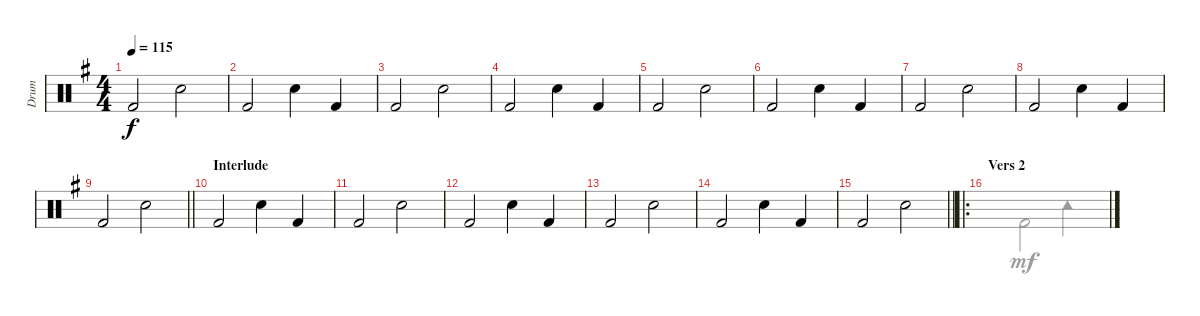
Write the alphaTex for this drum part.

\track ("Drum" "Drum") {instrument percussion}
\staff {score}
\articulation defaults
\voice
\ts (4 4)
\tempo 115
\clef neutral
\ks eminor "Kick (hit) 2".2{dy f} "Snare (hit) 2".2
|
"Kick (hit) 2".2 "Snare (hit) 2".4 "Kick (hit) 2".4 |
"Kick (hit) 2".2 "Snare (hit) 2".2 |
"Kick (hit) 2".2 "Snare (hit) 2".4 "Kick (hit) 2".4 |
"Kick (hit) 2".2 "Snare (hit) 2".2 |
"Kick (hit) 2".2 "Snare (hit) 2".4 "Kick (hit) 2".4 |
"Kick (hit) 2".2 "Snare (hit) 2".2 |
"Kick (hit) 2".2 "Snare (hit) 2".4 "Kick (hit) 2".4 |
\barLineRight lightlight "Kick (hit) 2".2 "Snare (hit) 2".2
|
\section ("" "Interlude")
"Kick (hit) 2".2 "Snare (hit) 2".4 "Kick (hit) 2".4 |
"Kick (hit) 2".2 "Snare (hit) 2".2 |
"Kick (hit) 2".2 "Snare (hit) 2".4 "Kick (hit) 2".4 |
"Kick (hit) 2".2 "Snare (hit) 2".2 |
"Kick (hit) 2".2 "Snare (hit) 2".4 "Kick (hit) 2".4 |
\barLineRight lightlight "Kick (hit) 2".2 "Snare (hit) 2".2
|
\ro
\section ("" "Vers 2")
\voice
\clef neutral
\ottava regular
\simile none
\ks eminor
|
|
|
|
|
|
|
|
\barLineRight lightlight
|
|
|
|
|
|
\barLineRight lightlight
|
"Kick (hit) 2".2{dy mf} "Tambourine (hit)".2
